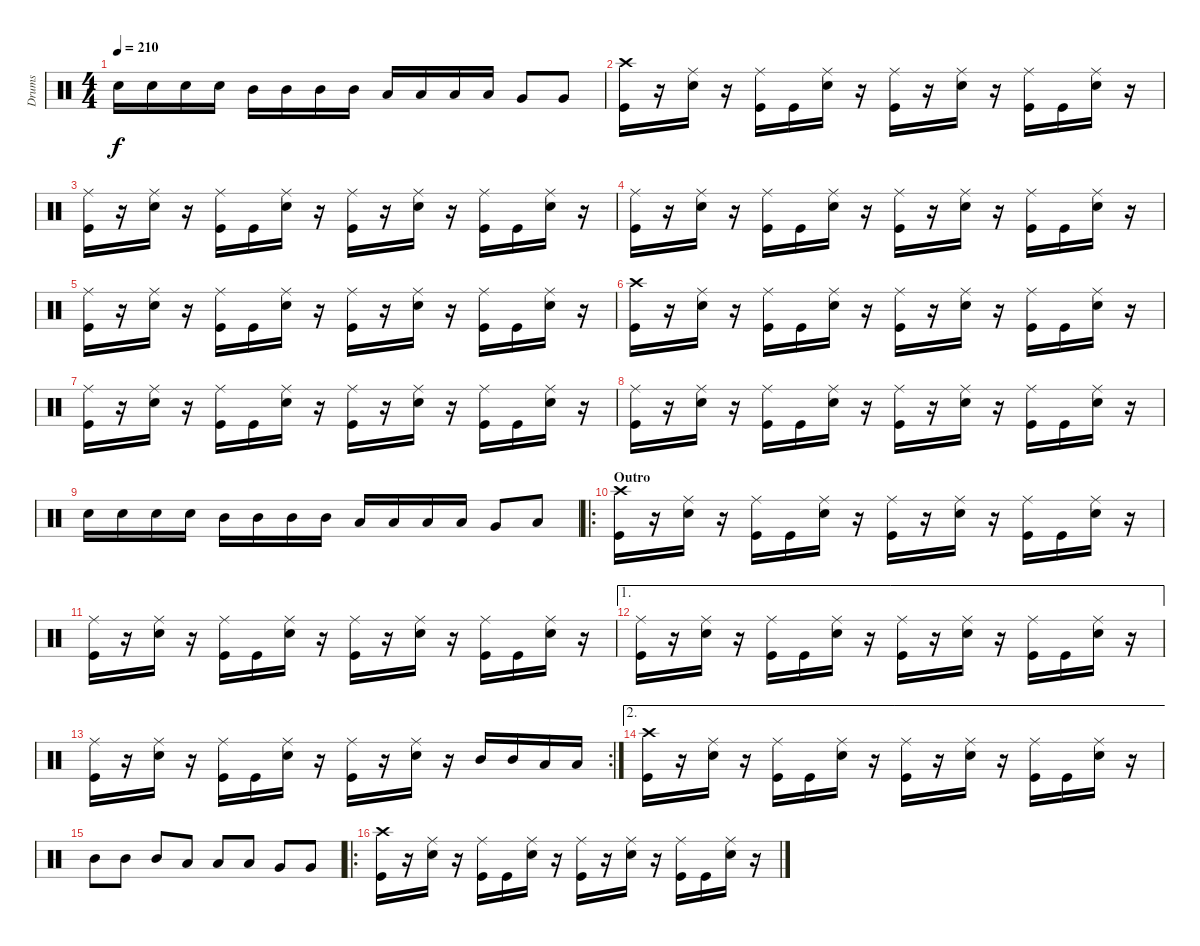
\track ("Drums" "Drums") {instrument percussion}
\staff {score}
\articulation defaults
\ts (4 4)
\tempo 210
\clef neutral
\ks c "Snare (hit) 2".16{dy f} "Snare (hit) 2".16 "Snare (hit) 2".16 "Snare (hit) 2".16 "Mid Tom (hit)".16 "Mid Tom (hit)".16 "Mid Tom (hit)".16 "Mid Tom (hit)".16 "Low Tom (hit)".16 "Low Tom (hit)".16 "Low Tom (hit)".16 "Low Tom (hit)".16 "Very Low Tom (hit)".8 "Very Low Tom (hit)".8
|
("Crash high (hit)" "Kick (hit)").16 r.16 ("Ride (middle)" "Snare (hit) 2").16 r.16 ("Ride (middle)" "Kick (hit)").16 "Kick (hit)".16 ("Ride (middle)" "Snare (hit) 2").16 r.16 ("Ride (middle)" "Kick (hit)").16 r.16 ("Ride (middle)" "Snare (hit) 2").16 r.16 ("Ride (middle)" "Kick (hit)").16 "Kick (hit)".16 ("Ride (middle)" "Snare (hit) 2").16 r.16 |
("Ride (middle)" "Kick (hit)").16 r.16 ("Ride (middle)" "Snare (hit) 2").16 r.16 ("Ride (middle)" "Kick (hit)").16 "Kick (hit)".16 ("Ride (middle)" "Snare (hit) 2").16 r.16 ("Ride (middle)" "Kick (hit)").16 r.16 ("Ride (middle)" "Snare (hit) 2").16 r.16 ("Ride (middle)" "Kick (hit)").16 "Kick (hit)".16 ("Ride (middle)" "Snare (hit) 2").16 r.16 |
("Ride (middle)" "Kick (hit)").16 r.16 ("Ride (middle)" "Snare (hit) 2").16 r.16 ("Ride (middle)" "Kick (hit)").16 "Kick (hit)".16 ("Ride (middle)" "Snare (hit) 2").16 r.16 ("Ride (middle)" "Kick (hit)").16 r.16 ("Ride (middle)" "Snare (hit) 2").16 r.16 ("Ride (middle)" "Kick (hit)").16 "Kick (hit)".16 ("Ride (middle)" "Snare (hit) 2").16 r.16 |
("Ride (middle)" "Kick (hit)").16 r.16 ("Ride (middle)" "Snare (hit) 2").16 r.16 ("Ride (middle)" "Kick (hit)").16 "Kick (hit)".16 ("Ride (middle)" "Snare (hit) 2").16 r.16 ("Ride (middle)" "Kick (hit)").16 r.16 ("Ride (middle)" "Snare (hit) 2").16 r.16 ("Ride (middle)" "Kick (hit)").16 "Kick (hit)".16 ("Ride (middle)" "Snare (hit) 2").16 r.16 |
("Crash high (hit)" "Kick (hit)").16 r.16 ("Ride (middle)" "Snare (hit) 2").16 r.16 ("Ride (middle)" "Kick (hit)").16 "Kick (hit)".16 ("Ride (middle)" "Snare (hit) 2").16 r.16 ("Ride (middle)" "Kick (hit)").16 r.16 ("Ride (middle)" "Snare (hit) 2").16 r.16 ("Ride (middle)" "Kick (hit)").16 "Kick (hit)".16 ("Ride (middle)" "Snare (hit) 2").16 r.16 |
("Ride (middle)" "Kick (hit)").16 r.16 ("Ride (middle)" "Snare (hit) 2").16 r.16 ("Ride (middle)" "Kick (hit)").16 "Kick (hit)".16 ("Ride (middle)" "Snare (hit) 2").16 r.16 ("Ride (middle)" "Kick (hit)").16 r.16 ("Ride (middle)" "Snare (hit) 2").16 r.16 ("Ride (middle)" "Kick (hit)").16 "Kick (hit)".16 ("Ride (middle)" "Snare (hit) 2").16 r.16 |
("Ride (middle)" "Kick (hit)").16 r.16 ("Ride (middle)" "Snare (hit) 2").16 r.16 ("Ride (middle)" "Kick (hit)").16 "Kick (hit)".16 ("Ride (middle)" "Snare (hit) 2").16 r.16 ("Ride (middle)" "Kick (hit)").16 r.16 ("Ride (middle)" "Snare (hit) 2").16 r.16 ("Ride (middle)" "Kick (hit)").16 "Kick (hit)".16 ("Ride (middle)" "Snare (hit) 2").16 r.16 |
"Snare (hit) 2".16 "Snare (hit) 2".16 "Snare (hit) 2".16 "Snare (hit) 2".16 "Mid Tom (hit)".16 "Mid Tom (hit)".16 "Mid Tom (hit)".16 "Mid Tom (hit)".16 "Low Tom (hit)".16 "Low Tom (hit)".16 "Low Tom (hit)".16 "Low Tom (hit)".16 "Very Low Tom (hit)".8 "Low Floor Tom (hit)".8 |
\ro
\section ("" "Outro")
("Crash high (hit)" "Kick (hit)").16 r.16 ("Ride (middle)" "Snare (hit) 2").16 r.16 ("Ride (middle)" "Kick (hit)").16 "Kick (hit)".16 ("Ride (middle)" "Snare (hit) 2").16 r.16 ("Ride (middle)" "Kick (hit)").16 r.16 ("Ride (middle)" "Snare (hit) 2").16 r.16 ("Ride (middle)" "Kick (hit)").16 "Kick (hit)".16 ("Ride (middle)" "Snare (hit) 2").16 r.16 |
("Ride (middle)" "Kick (hit)").16 r.16 ("Ride (middle)" "Snare (hit) 2").16 r.16 ("Ride (middle)" "Kick (hit)").16 "Kick (hit)".16 ("Ride (middle)" "Snare (hit) 2").16 r.16 ("Ride (middle)" "Kick (hit)").16 r.16 ("Ride (middle)" "Snare (hit) 2").16 r.16 ("Ride (middle)" "Kick (hit)").16 "Kick (hit)".16 ("Ride (middle)" "Snare (hit) 2").16 r.16 |
\ae 1
("Ride (middle)" "Kick (hit)").16 r.16 ("Ride (middle)" "Snare (hit) 2").16 r.16 ("Ride (middle)" "Kick (hit)").16 "Kick (hit)".16 ("Ride (middle)" "Snare (hit) 2").16 r.16 ("Ride (middle)" "Kick (hit)").16 r.16 ("Ride (middle)" "Snare (hit) 2").16 r.16 ("Ride (middle)" "Kick (hit)").16 "Kick (hit)".16 ("Ride (middle)" "Snare (hit) 2").16 r.16 |
\rc 2
("Ride (middle)" "Kick (hit)").16 r.16 ("Ride (middle)" "Snare (hit) 2").16 r.16 ("Ride (middle)" "Kick (hit)").16 "Kick (hit)".16 ("Ride (middle)" "Snare (hit) 2").16 r.16 ("Ride (middle)" "Kick (hit)").16 r.16 ("Ride (middle)" "Snare (hit) 2").16 r.16 "Mid Tom (hit)".16 "Mid Tom (hit)".16 "Low Tom (hit)".16 "Low Tom (hit)".16 |
\ae 2
("Crash high (hit)" "Kick (hit)").16 r.16 ("Ride (middle)" "Snare (hit) 2").16 r.16 ("Ride (middle)" "Kick (hit)").16 "Kick (hit)".16 ("Ride (middle)" "Snare (hit) 2").16 r.16 ("Ride (middle)" "Kick (hit)").16 r.16 ("Ride (middle)" "Snare (hit) 2").16 r.16 ("Ride (middle)" "Kick (hit)").16 "Kick (hit)".16 ("Ride (middle)" "Snare (hit) 2").16 r.16 |
"Mid Tom (hit)".8 "Mid Tom (hit)".8 "Mid Tom (hit)".8 "Low Tom (hit)".8 "Low Tom (hit)".8 "Low Tom (hit)".8 "Very Low Tom (hit)".8 "Very Low Tom (hit)".8 |
\ro
("Crash high (hit)" "Kick (hit)").16 r.16 ("Ride (middle)" "Snare (hit) 2").16 r.16 ("Ride (middle)" "Kick (hit)").16 "Kick (hit)".16 ("Ride (middle)" "Snare (hit) 2").16 r.16 ("Ride (middle)" "Kick (hit)").16 r.16 ("Ride (middle)" "Snare (hit) 2").16 r.16 ("Ride (middle)" "Kick (hit)").16 "Kick (hit)".16 ("Ride (middle)" "Snare (hit) 2").16 r.16
